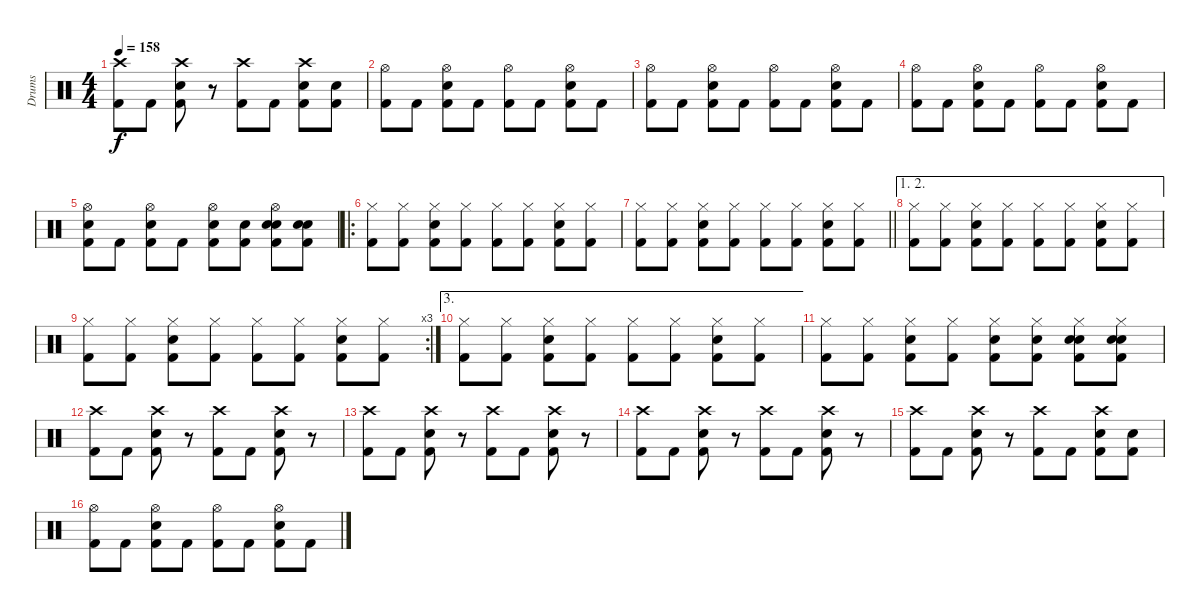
\track ("Drums" "Drums") {instrument percussion}
\staff {score}
\articulation defaults
\ts (4 4)
\tempo 158
\clef neutral
\ks c
("Crash high (hit)" "Kick (hit) 2").8{dy f} "Kick (hit) 2".8 ("Crash high (hit)" "Electric Snare (hit)" "Kick (hit) 2").8 r.8 ("Crash high (hit)" "Kick (hit) 2").8 "Kick (hit) 2".8 ("Crash high (hit)" "Electric Snare (hit)" "Kick (hit) 2").8 ("Electric Snare (hit)" "Kick (hit) 2").8 |
("Hi-Hat (open)" "Kick (hit) 2").8 "Kick (hit) 2".8 ("Hi-Hat (open)" "Electric Snare (hit)" "Kick (hit) 2").8 "Kick (hit) 2".8 ("Hi-Hat (open)" "Kick (hit) 2").8 "Kick (hit) 2".8 ("Hi-Hat (open)" "Kick (hit) 2" "Electric Snare (hit)").8 "Kick (hit) 2".8 |
("Hi-Hat (open)" "Kick (hit) 2").8 "Kick (hit) 2".8 ("Hi-Hat (open)" "Electric Snare (hit)" "Kick (hit) 2").8 "Kick (hit) 2".8 ("Hi-Hat (open)" "Kick (hit) 2").8 "Kick (hit) 2".8 ("Hi-Hat (open)" "Kick (hit) 2" "Electric Snare (hit)").8 "Kick (hit) 2".8 |
("Hi-Hat (open)" "Kick (hit) 2").8 "Kick (hit) 2".8 ("Hi-Hat (open)" "Electric Snare (hit)" "Kick (hit) 2").8 "Kick (hit) 2".8 ("Hi-Hat (open)" "Kick (hit) 2").8 "Kick (hit) 2".8 ("Hi-Hat (open)" "Kick (hit) 2" "Electric Snare (hit)").8 "Kick (hit) 2".8 |
("Hi-Hat (open)" "Electric Snare (hit)" "Kick (hit) 2").8 "Kick (hit) 2".8 ("Hi-Hat (open)" "Electric Snare (hit)" "Kick (hit) 2").8 "Kick (hit) 2".8 ("Hi-Hat (open)" "Electric Snare (hit)" "Kick (hit) 2").8 ("Electric Snare (hit)" "Kick (hit) 2").8 ("Hi-Hat (open)" "Electric Snare (hit)" "Kick (hit) 2" "Electric Snare (hit)").8 ("Electric Snare (hit)" "Electric Snare (hit)" "Kick (hit) 2").8 |
\ro
("Hi-Hat (closed)" "Kick (hit) 2").8 ("Hi-Hat (closed)" "Kick (hit) 2").8 ("Hi-Hat (closed)" "Electric Snare (hit)" "Kick (hit) 2").8 ("Hi-Hat (closed)" "Kick (hit) 2").8 ("Hi-Hat (closed)" "Kick (hit) 2").8 ("Hi-Hat (closed)" "Kick (hit) 2").8 ("Hi-Hat (closed)" "Kick (hit) 2" "Electric Snare (hit)").8 ("Hi-Hat (closed)" "Kick (hit) 2").8 |
\barLineRight lightlight
("Hi-Hat (closed)" "Kick (hit) 2").8 ("Hi-Hat (closed)" "Kick (hit) 2").8 ("Hi-Hat (closed)" "Electric Snare (hit)" "Kick (hit) 2").8 ("Hi-Hat (closed)" "Kick (hit) 2").8 ("Hi-Hat (closed)" "Kick (hit) 2").8 ("Hi-Hat (closed)" "Kick (hit) 2").8 ("Hi-Hat (closed)" "Kick (hit) 2" "Electric Snare (hit)").8 ("Hi-Hat (closed)" "Kick (hit) 2").8 |
\ae (1 2)
("Hi-Hat (closed)" "Kick (hit) 2").8 ("Hi-Hat (closed)" "Kick (hit) 2").8 ("Hi-Hat (closed)" "Electric Snare (hit)" "Kick (hit) 2").8 ("Hi-Hat (closed)" "Kick (hit) 2").8 ("Hi-Hat (closed)" "Kick (hit) 2").8 ("Hi-Hat (closed)" "Kick (hit) 2").8 ("Hi-Hat (closed)" "Kick (hit) 2" "Electric Snare (hit)").8 ("Hi-Hat (closed)" "Kick (hit) 2").8 |
\rc 3
("Hi-Hat (closed)" "Kick (hit) 2").8 ("Hi-Hat (closed)" "Kick (hit) 2").8 ("Hi-Hat (closed)" "Electric Snare (hit)" "Kick (hit) 2").8 ("Hi-Hat (closed)" "Kick (hit) 2").8 ("Hi-Hat (closed)" "Kick (hit) 2").8 ("Hi-Hat (closed)" "Kick (hit) 2").8 ("Hi-Hat (closed)" "Kick (hit) 2" "Electric Snare (hit)").8 ("Hi-Hat (closed)" "Kick (hit) 2").8 |
\ae 3
("Hi-Hat (closed)" "Kick (hit) 2").8 ("Hi-Hat (closed)" "Kick (hit) 2").8 ("Hi-Hat (closed)" "Electric Snare (hit)" "Kick (hit) 2").8 ("Hi-Hat (closed)" "Kick (hit) 2").8 ("Hi-Hat (closed)" "Kick (hit) 2").8 ("Hi-Hat (closed)" "Kick (hit) 2").8 ("Hi-Hat (closed)" "Kick (hit) 2" "Electric Snare (hit)").8 ("Hi-Hat (closed)" "Kick (hit) 2").8 |
("Hi-Hat (closed)" "Kick (hit) 2").8 ("Hi-Hat (closed)" "Kick (hit) 2").8 ("Hi-Hat (closed)" "Electric Snare (hit)" "Kick (hit) 2").8 ("Hi-Hat (closed)" "Kick (hit) 2").8 ("Hi-Hat (closed)" "Electric Snare (hit)" "Kick (hit) 2").8 ("Hi-Hat (closed)" "Electric Snare (hit)" "Kick (hit) 2").8 ("Hi-Hat (closed)" "Electric Snare (hit)" "Kick (hit) 2" "Electric Snare (hit)").8 ("Hi-Hat (closed)" "Electric Snare (hit)" "Electric Snare (hit)" "Kick (hit) 2").8 |
("Crash high (hit)" "Kick (hit) 2").8 "Kick (hit) 2".8 ("Crash high (hit)" "Electric Snare (hit)" "Kick (hit) 2").8 r.8 ("Crash high (hit)" "Kick (hit) 2").8 "Kick (hit) 2".8 ("Crash high (hit)" "Electric Snare (hit)" "Kick (hit) 2").8 r.8 |
("Crash high (hit)" "Kick (hit) 2").8 "Kick (hit) 2".8 ("Crash high (hit)" "Electric Snare (hit)" "Kick (hit) 2").8 r.8 ("Crash high (hit)" "Kick (hit) 2").8 "Kick (hit) 2".8 ("Crash high (hit)" "Electric Snare (hit)" "Kick (hit) 2").8 r.8 |
("Crash high (hit)" "Kick (hit) 2").8 "Kick (hit) 2".8 ("Crash high (hit)" "Electric Snare (hit)" "Kick (hit) 2").8 r.8 ("Crash high (hit)" "Kick (hit) 2").8 "Kick (hit) 2".8 ("Crash high (hit)" "Electric Snare (hit)" "Kick (hit) 2").8 r.8 |
("Crash high (hit)" "Kick (hit) 2").8 "Kick (hit) 2".8 ("Crash high (hit)" "Electric Snare (hit)" "Kick (hit) 2").8 r.8 ("Crash high (hit)" "Kick (hit) 2").8 "Kick (hit) 2".8 ("Crash high (hit)" "Electric Snare (hit)" "Kick (hit) 2").8 ("Electric Snare (hit)" "Kick (hit) 2").8 |
("Hi-Hat (open)" "Kick (hit) 2").8 "Kick (hit) 2".8 ("Hi-Hat (open)" "Electric Snare (hit)" "Kick (hit) 2").8 "Kick (hit) 2".8 ("Hi-Hat (open)" "Kick (hit) 2").8 "Kick (hit) 2".8 ("Hi-Hat (open)" "Kick (hit) 2" "Electric Snare (hit)").8 "Kick (hit) 2".8
